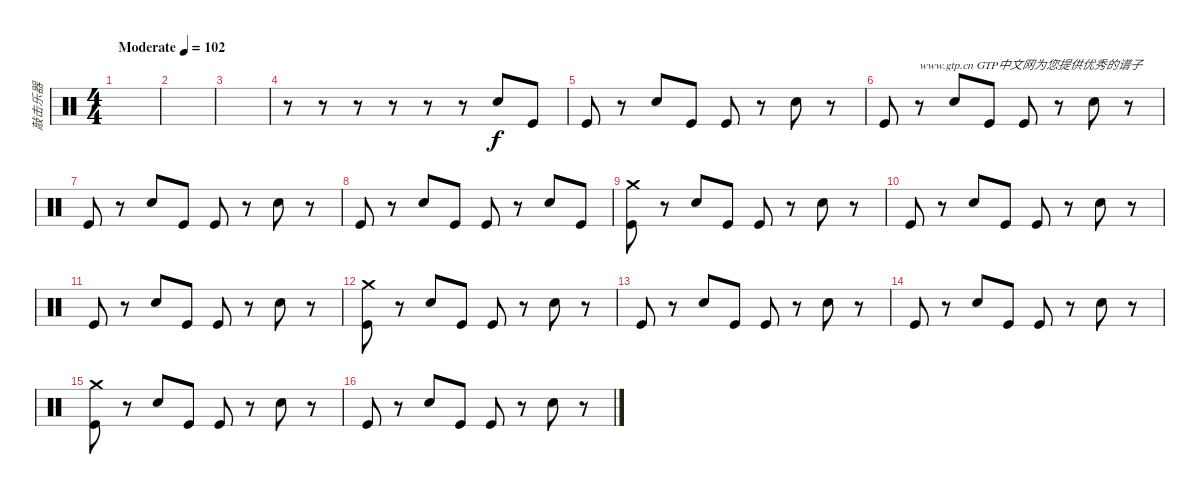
\track ("敲击乐器" "敲击乐器") {instrument percussion}
\staff {score}
\articulation defaults
\ts (4 4)
\tempo (102 "Moderate")
\clef neutral
\ks c
|
|
|
r.8 r.8 r.8 r.8 r.8 r.8 "Snare (hit) 2".8 "Kick (hit)".8 |
"Kick (hit)".8 r.8 "Snare (hit) 2".8 "Kick (hit)".8 "Kick (hit)".8 r.8 "Snare (hit) 2".8 r.8 |
"Kick (hit)".8 r.8{txt "www.gtp.cn GTP中文网为您提供优秀的谱子"} "Snare (hit) 2".8 "Kick (hit)".8 "Kick (hit)".8 r.8 "Snare (hit) 2".8 r.8 |
"Kick (hit)".8 r.8 "Snare (hit) 2".8 "Kick (hit)".8 "Kick (hit)".8 r.8 "Snare (hit) 2".8 r.8 |
"Kick (hit)".8 r.8 "Snare (hit) 2".8 "Kick (hit)".8 "Kick (hit)".8 r.8 "Snare (hit) 2".8 "Kick (hit)".8 |
("Crash medium (hit)" "Kick (hit)").8 r.8 "Snare (hit) 2".8 "Kick (hit)".8 "Kick (hit)".8 r.8 "Snare (hit) 2".8 r.8 |
"Kick (hit)".8 r.8 "Snare (hit) 2".8 "Kick (hit)".8 "Kick (hit)".8 r.8 "Snare (hit) 2".8 r.8 |
"Kick (hit)".8 r.8 "Snare (hit) 2".8 "Kick (hit)".8 "Kick (hit)".8 r.8 "Snare (hit) 2".8 r.8 |
("Crash medium (hit)" "Kick (hit)").8 r.8 "Snare (hit) 2".8 "Kick (hit)".8 "Kick (hit)".8 r.8 "Snare (hit) 2".8 r.8 |
"Kick (hit)".8 r.8 "Snare (hit) 2".8 "Kick (hit)".8 "Kick (hit)".8 r.8 "Snare (hit) 2".8 r.8 |
"Kick (hit)".8 r.8 "Snare (hit) 2".8 "Kick (hit)".8 "Kick (hit)".8 r.8 "Snare (hit) 2".8 r.8 |
("Crash medium (hit)" "Kick (hit)").8 r.8 "Snare (hit) 2".8 "Kick (hit)".8 "Kick (hit)".8 r.8 "Snare (hit) 2".8 r.8 |
"Kick (hit)".8 r.8 "Snare (hit) 2".8 "Kick (hit)".8 "Kick (hit)".8 r.8 "Snare (hit) 2".8 r.8
